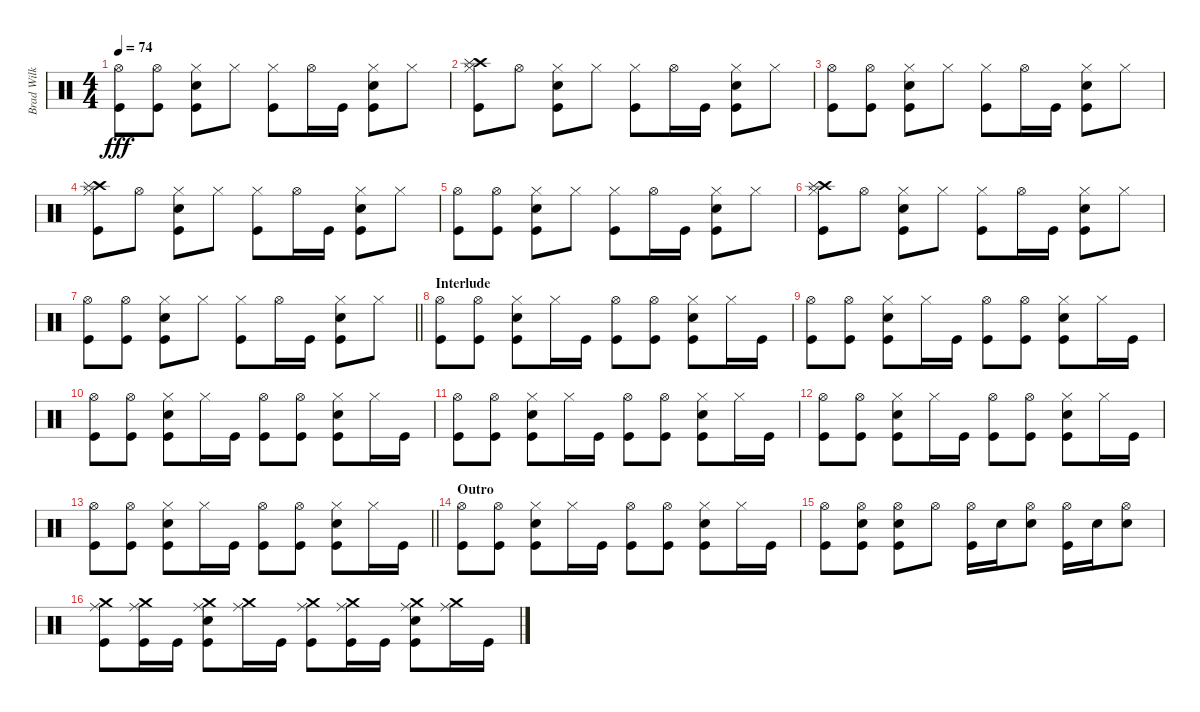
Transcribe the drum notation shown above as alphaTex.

\track ("Brad Wilk" "Brad Wilk") {instrument percussion}
\staff {score}
\articulation defaults
\ts (4 4)
\tempo 74
\clef neutral
\ks c
("Kick (hit)" "Hi-Hat (open)").8{dy fff} ("Kick (hit)" "Hi-Hat (open)").8 ("Kick (hit)" "Electric Snare (hit)" "Hi-Hat (closed)").8 "Hi-Hat (closed)".8 ("Kick (hit)" "Hi-Hat (closed)").8 "Hi-Hat (open)".16 "Kick (hit)".16 ("Kick (hit)" "Electric Snare (hit)" "Hi-Hat (closed)").8 "Hi-Hat (closed)".8 |
("Crash high (hit)" "Splash (hit)" "Kick (hit)" "Hi-Hat (closed)").8 "Hi-Hat (open)".8 ("Kick (hit)" "Electric Snare (hit)" "Hi-Hat (closed)").8 "Hi-Hat (closed)".8 ("Kick (hit)" "Hi-Hat (closed)").8 "Hi-Hat (open)".16 "Kick (hit)".16 ("Kick (hit)" "Electric Snare (hit)" "Hi-Hat (closed)").8 "Hi-Hat (closed)".8 |
("Kick (hit)" "Hi-Hat (open)").8 ("Kick (hit)" "Hi-Hat (open)").8 ("Kick (hit)" "Electric Snare (hit)" "Hi-Hat (closed)").8 "Hi-Hat (closed)".8 ("Kick (hit)" "Hi-Hat (closed)").8 "Hi-Hat (open)".16 "Kick (hit)".16 ("Kick (hit)" "Electric Snare (hit)" "Hi-Hat (closed)").8 "Hi-Hat (closed)".8 |
("Crash high (hit)" "Splash (hit)" "Kick (hit)" "Hi-Hat (closed)").8 "Hi-Hat (open)".8 ("Kick (hit)" "Electric Snare (hit)" "Hi-Hat (closed)").8 "Hi-Hat (closed)".8 ("Kick (hit)" "Hi-Hat (closed)").8 "Hi-Hat (open)".16 "Kick (hit)".16 ("Kick (hit)" "Electric Snare (hit)" "Hi-Hat (closed)").8 "Hi-Hat (closed)".8 |
("Kick (hit)" "Hi-Hat (open)").8 ("Kick (hit)" "Hi-Hat (open)").8 ("Kick (hit)" "Electric Snare (hit)" "Hi-Hat (closed)").8 "Hi-Hat (closed)".8 ("Kick (hit)" "Hi-Hat (closed)").8 "Hi-Hat (open)".16 "Kick (hit)".16 ("Kick (hit)" "Electric Snare (hit)" "Hi-Hat (closed)").8 "Hi-Hat (closed)".8 |
("Crash high (hit)" "Splash (hit)" "Kick (hit)" "Hi-Hat (closed)").8 "Hi-Hat (open)".8 ("Kick (hit)" "Electric Snare (hit)" "Hi-Hat (closed)").8 "Hi-Hat (closed)".8 ("Kick (hit)" "Hi-Hat (closed)").8 "Hi-Hat (open)".16 "Kick (hit)".16 ("Kick (hit)" "Electric Snare (hit)" "Hi-Hat (closed)").8 "Hi-Hat (closed)".8 |
\barLineRight lightlight
("Kick (hit)" "Hi-Hat (open)").8 ("Kick (hit)" "Hi-Hat (open)").8 ("Kick (hit)" "Electric Snare (hit)" "Hi-Hat (closed)").8 "Hi-Hat (closed)".8 ("Kick (hit)" "Hi-Hat (closed)").8 "Hi-Hat (open)".16 "Kick (hit)".16 ("Kick (hit)" "Electric Snare (hit)" "Hi-Hat (closed)").8 "Hi-Hat (closed)".8 |
\section ("" "Interlude")
("Kick (hit)" "Hi-Hat (open)").8 ("Kick (hit)" "Hi-Hat (open)").8 ("Kick (hit)" "Electric Snare (hit)" "Hi-Hat (closed)").8 "Hi-Hat (closed)".16 "Kick (hit)".16 ("Kick (hit)" "Hi-Hat (open)").8 ("Kick (hit)" "Hi-Hat (open)").8 ("Kick (hit)" "Electric Snare (hit)" "Hi-Hat (closed)").8 "Hi-Hat (closed)".16 "Kick (hit)".16 |
("Kick (hit)" "Hi-Hat (open)").8 ("Kick (hit)" "Hi-Hat (open)").8 ("Kick (hit)" "Electric Snare (hit)" "Hi-Hat (closed)").8 "Hi-Hat (closed)".16 "Kick (hit)".16 ("Kick (hit)" "Hi-Hat (open)").8 ("Kick (hit)" "Hi-Hat (open)").8 ("Kick (hit)" "Electric Snare (hit)" "Hi-Hat (closed)").8 "Hi-Hat (closed)".16 "Kick (hit)".16 |
("Kick (hit)" "Hi-Hat (open)").8 ("Kick (hit)" "Hi-Hat (open)").8 ("Kick (hit)" "Electric Snare (hit)" "Hi-Hat (closed)").8 "Hi-Hat (closed)".16 "Kick (hit)".16 ("Kick (hit)" "Hi-Hat (open)").8 ("Kick (hit)" "Hi-Hat (open)").8 ("Kick (hit)" "Electric Snare (hit)" "Hi-Hat (closed)").8 "Hi-Hat (closed)".16 "Kick (hit)".16 |
("Kick (hit)" "Hi-Hat (open)").8 ("Kick (hit)" "Hi-Hat (open)").8 ("Kick (hit)" "Electric Snare (hit)" "Hi-Hat (closed)").8 "Hi-Hat (closed)".16 "Kick (hit)".16 ("Kick (hit)" "Hi-Hat (open)").8 ("Kick (hit)" "Hi-Hat (open)").8 ("Kick (hit)" "Electric Snare (hit)" "Hi-Hat (closed)").8 "Hi-Hat (closed)".16 "Kick (hit)".16 |
("Kick (hit)" "Hi-Hat (open)").8 ("Kick (hit)" "Hi-Hat (open)").8 ("Kick (hit)" "Electric Snare (hit)" "Hi-Hat (closed)").8 "Hi-Hat (closed)".16 "Kick (hit)".16 ("Kick (hit)" "Hi-Hat (open)").8 ("Kick (hit)" "Hi-Hat (open)").8 ("Kick (hit)" "Electric Snare (hit)" "Hi-Hat (closed)").8 "Hi-Hat (closed)".16 "Kick (hit)".16 |
\barLineRight lightlight
("Kick (hit)" "Hi-Hat (open)").8 ("Kick (hit)" "Hi-Hat (open)").8 ("Kick (hit)" "Electric Snare (hit)" "Hi-Hat (closed)").8 "Hi-Hat (closed)".16 "Kick (hit)".16 ("Kick (hit)" "Hi-Hat (open)").8 ("Kick (hit)" "Hi-Hat (open)").8 ("Kick (hit)" "Electric Snare (hit)" "Hi-Hat (closed)").8 "Hi-Hat (closed)".16 "Kick (hit)".16 |
\section ("" "Outro")
("Kick (hit)" "Hi-Hat (open)").8 ("Kick (hit)" "Hi-Hat (open)").8 ("Kick (hit)" "Electric Snare (hit)" "Hi-Hat (closed)").8 "Hi-Hat (closed)".16 "Kick (hit)".16 ("Kick (hit)" "Hi-Hat (open)").8 ("Kick (hit)" "Hi-Hat (open)").8 ("Kick (hit)" "Electric Snare (hit)" "Hi-Hat (closed)").8 "Hi-Hat (closed)".16 "Kick (hit)".16 |
("Kick (hit)" "Hi-Hat (open)").8 ("Kick (hit)" "Electric Snare (hit)" "Hi-Hat (open)").8 ("Kick (hit)" "Electric Snare (hit)" "Hi-Hat (open)").8 "Hi-Hat (open)".8 ("Kick (hit)" "Hi-Hat (open)").16 "Electric Snare (hit)".16 ("Electric Snare (hit)" "Hi-Hat (open)").8 ("Kick (hit)" "Hi-Hat (open)").16 "Electric Snare (hit)".16 ("Electric Snare (hit)" "Hi-Hat (open)").8 |
("Crash medium (hit)" "Kick (hit)" "Ride (middle)").8 ("Crash medium (hit)" "Kick (hit)" "Ride (middle)").16 "Kick (hit)".16 ("Crash medium (hit)" "Kick (hit)" "Electric Snare (hit)" "Ride (middle)").8 ("Crash medium (hit)" "Ride (middle)").16 "Kick (hit)".16 ("Crash medium (hit)" "Kick (hit)" "Ride (middle)").8 ("Crash medium (hit)" "Kick (hit)" "Ride (middle)").16 "Kick (hit)".16 ("Crash medium (hit)" "Kick (hit)" "Electric Snare (hit)" "Ride (middle)").8 ("Crash medium (hit)" "Ride (middle)").16 "Kick (hit)".16
